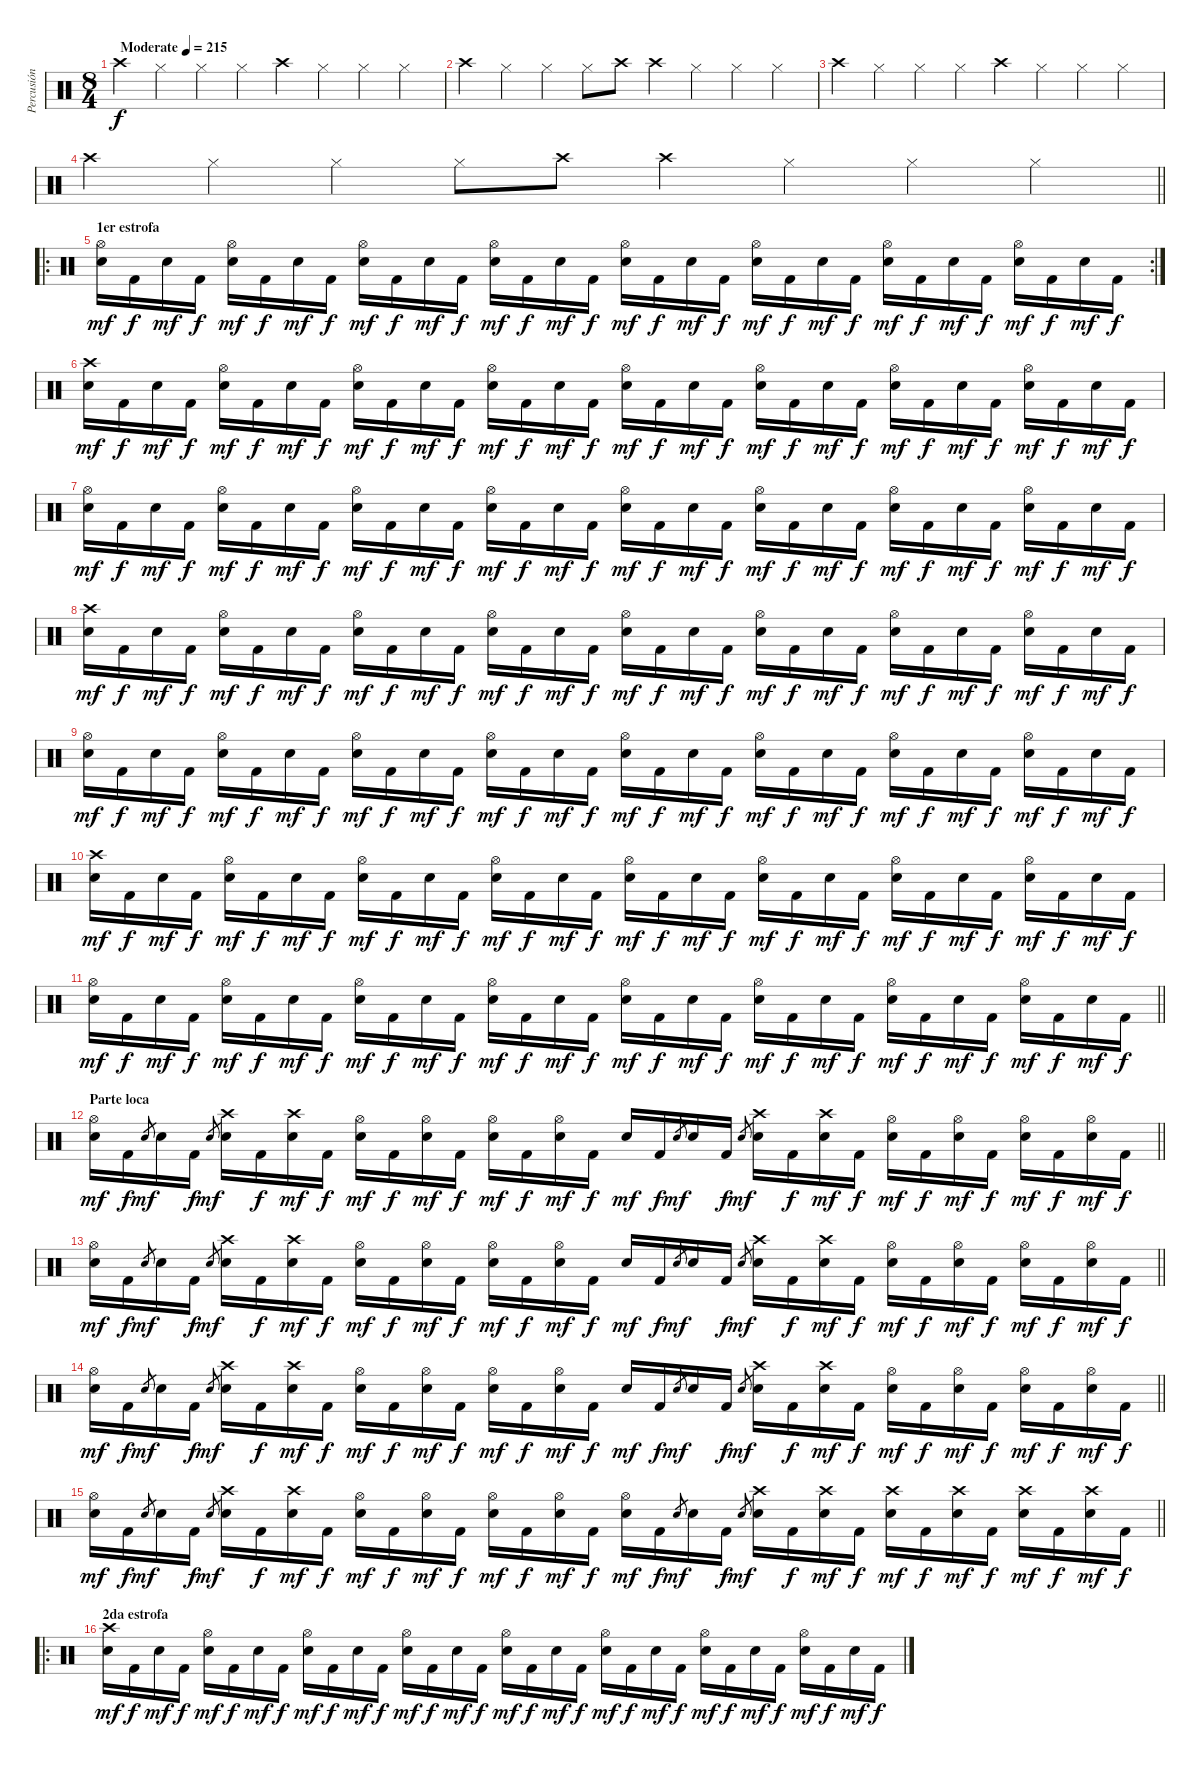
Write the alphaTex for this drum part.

\track ("Percusión" "Percusión") {instrument percussion}
\staff {score}
\articulation defaults
\ts (8 4)
\tempo (215 "Moderate")
\clef neutral
\ks c "Crash high (hit)".4{dy f} "Hi-Hat (closed)".4 "Hi-Hat (closed)".4 "Hi-Hat (closed)".4 "Crash high (hit)".4 "Hi-Hat (closed)".4 "Hi-Hat (closed)".4 "Hi-Hat (closed)".4
|
"Crash high (hit)".4 "Hi-Hat (closed)".4 "Hi-Hat (closed)".4 "Hi-Hat (closed)".8 "Crash high (hit)".8 "Crash high (hit)".4 "Hi-Hat (closed)".4 "Hi-Hat (closed)".4 "Hi-Hat (closed)".4 |
"Crash high (hit)".4 "Hi-Hat (closed)".4 "Hi-Hat (closed)".4 "Hi-Hat (closed)".4 "Crash high (hit)".4 "Hi-Hat (closed)".4 "Hi-Hat (closed)".4 "Hi-Hat (closed)".4 |
\barLineRight lightlight "Crash high (hit)".4 "Hi-Hat (closed)".4 "Hi-Hat (closed)".4 "Hi-Hat (closed)".8 "Crash high (hit)".8 "Crash high (hit)".4 "Hi-Hat (closed)".4 "Hi-Hat (closed)".4 "Hi-Hat (closed)".4
|
\ro
\rc 2
\section ("" "1er estrofa")
("Hi-Hat (open)" "Electric Snare (hit)").16{dy mf} "Kick (hit) 2".16{dy f} "Electric Snare (hit)".16{dy mf} "Kick (hit) 2".16{dy f} ("Hi-Hat (open)" "Electric Snare (hit)").16{dy mf} "Kick (hit) 2".16{dy f} "Electric Snare (hit)".16{dy mf} "Kick (hit) 2".16{dy f} ("Hi-Hat (open)" "Electric Snare (hit)").16{dy mf} "Kick (hit) 2".16{dy f} "Electric Snare (hit)".16{dy mf} "Kick (hit) 2".16{dy f} ("Hi-Hat (open)" "Electric Snare (hit)").16{dy mf} "Kick (hit) 2".16{dy f} "Electric Snare (hit)".16{dy mf} "Kick (hit) 2".16{dy f} ("Hi-Hat (open)" "Electric Snare (hit)").16{dy mf} "Kick (hit) 2".16{dy f} "Electric Snare (hit)".16{dy mf} "Kick (hit) 2".16{dy f} ("Hi-Hat (open)" "Electric Snare (hit)").16{dy mf} "Kick (hit) 2".16{dy f} "Electric Snare (hit)".16{dy mf} "Kick (hit) 2".16{dy f} ("Hi-Hat (open)" "Electric Snare (hit)").16{dy mf} "Kick (hit) 2".16{dy f} "Electric Snare (hit)".16{dy mf} "Kick (hit) 2".16{dy f} ("Hi-Hat (open)" "Electric Snare (hit)").16{dy mf} "Kick (hit) 2".16{dy f} "Electric Snare (hit)".16{dy mf} "Kick (hit) 2".16{dy f} |
("Crash high (hit)" "Electric Snare (hit)").16{dy mf} "Kick (hit) 2".16{dy f} "Electric Snare (hit)".16{dy mf} "Kick (hit) 2".16{dy f} ("Hi-Hat (open)" "Electric Snare (hit)").16{dy mf} "Kick (hit) 2".16{dy f} "Electric Snare (hit)".16{dy mf} "Kick (hit) 2".16{dy f} ("Hi-Hat (open)" "Electric Snare (hit)").16{dy mf} "Kick (hit) 2".16{dy f} "Electric Snare (hit)".16{dy mf} "Kick (hit) 2".16{dy f} ("Hi-Hat (open)" "Electric Snare (hit)").16{dy mf} "Kick (hit) 2".16{dy f} "Electric Snare (hit)".16{dy mf} "Kick (hit) 2".16{dy f} ("Hi-Hat (open)" "Electric Snare (hit)").16{dy mf} "Kick (hit) 2".16{dy f} "Electric Snare (hit)".16{dy mf} "Kick (hit) 2".16{dy f} ("Hi-Hat (open)" "Electric Snare (hit)").16{dy mf} "Kick (hit) 2".16{dy f} "Electric Snare (hit)".16{dy mf} "Kick (hit) 2".16{dy f} ("Hi-Hat (open)" "Electric Snare (hit)").16{dy mf} "Kick (hit) 2".16{dy f} "Electric Snare (hit)".16{dy mf} "Kick (hit) 2".16{dy f} ("Hi-Hat (open)" "Electric Snare (hit)").16{dy mf} "Kick (hit) 2".16{dy f} "Electric Snare (hit)".16{dy mf} "Kick (hit) 2".16{dy f} |
("Hi-Hat (open)" "Electric Snare (hit)").16{dy mf} "Kick (hit) 2".16{dy f} "Electric Snare (hit)".16{dy mf} "Kick (hit) 2".16{dy f} ("Hi-Hat (open)" "Electric Snare (hit)").16{dy mf} "Kick (hit) 2".16{dy f} "Electric Snare (hit)".16{dy mf} "Kick (hit) 2".16{dy f} ("Hi-Hat (open)" "Electric Snare (hit)").16{dy mf} "Kick (hit) 2".16{dy f} "Electric Snare (hit)".16{dy mf} "Kick (hit) 2".16{dy f} ("Hi-Hat (open)" "Electric Snare (hit)").16{dy mf} "Kick (hit) 2".16{dy f} "Electric Snare (hit)".16{dy mf} "Kick (hit) 2".16{dy f} ("Hi-Hat (open)" "Electric Snare (hit)").16{dy mf} "Kick (hit) 2".16{dy f} "Electric Snare (hit)".16{dy mf} "Kick (hit) 2".16{dy f} ("Hi-Hat (open)" "Electric Snare (hit)").16{dy mf} "Kick (hit) 2".16{dy f} "Electric Snare (hit)".16{dy mf} "Kick (hit) 2".16{dy f} ("Hi-Hat (open)" "Electric Snare (hit)").16{dy mf} "Kick (hit) 2".16{dy f} "Electric Snare (hit)".16{dy mf} "Kick (hit) 2".16{dy f} ("Hi-Hat (open)" "Electric Snare (hit)").16{dy mf} "Kick (hit) 2".16{dy f} "Electric Snare (hit)".16{dy mf} "Kick (hit) 2".16{dy f} |
("Crash high (hit)" "Electric Snare (hit)").16{dy mf} "Kick (hit) 2".16{dy f} "Electric Snare (hit)".16{dy mf} "Kick (hit) 2".16{dy f} ("Hi-Hat (open)" "Electric Snare (hit)").16{dy mf} "Kick (hit) 2".16{dy f} "Electric Snare (hit)".16{dy mf} "Kick (hit) 2".16{dy f} ("Hi-Hat (open)" "Electric Snare (hit)").16{dy mf} "Kick (hit) 2".16{dy f} "Electric Snare (hit)".16{dy mf} "Kick (hit) 2".16{dy f} ("Hi-Hat (open)" "Electric Snare (hit)").16{dy mf} "Kick (hit) 2".16{dy f} "Electric Snare (hit)".16{dy mf} "Kick (hit) 2".16{dy f} ("Hi-Hat (open)" "Electric Snare (hit)").16{dy mf} "Kick (hit) 2".16{dy f} "Electric Snare (hit)".16{dy mf} "Kick (hit) 2".16{dy f} ("Hi-Hat (open)" "Electric Snare (hit)").16{dy mf} "Kick (hit) 2".16{dy f} "Electric Snare (hit)".16{dy mf} "Kick (hit) 2".16{dy f} ("Hi-Hat (open)" "Electric Snare (hit)").16{dy mf} "Kick (hit) 2".16{dy f} "Electric Snare (hit)".16{dy mf} "Kick (hit) 2".16{dy f} ("Hi-Hat (open)" "Electric Snare (hit)").16{dy mf} "Kick (hit) 2".16{dy f} "Electric Snare (hit)".16{dy mf} "Kick (hit) 2".16{dy f} |
("Hi-Hat (open)" "Electric Snare (hit)").16{dy mf} "Kick (hit) 2".16{dy f} "Electric Snare (hit)".16{dy mf} "Kick (hit) 2".16{dy f} ("Hi-Hat (open)" "Electric Snare (hit)").16{dy mf} "Kick (hit) 2".16{dy f} "Electric Snare (hit)".16{dy mf} "Kick (hit) 2".16{dy f} ("Hi-Hat (open)" "Electric Snare (hit)").16{dy mf} "Kick (hit) 2".16{dy f} "Electric Snare (hit)".16{dy mf} "Kick (hit) 2".16{dy f} ("Hi-Hat (open)" "Electric Snare (hit)").16{dy mf} "Kick (hit) 2".16{dy f} "Electric Snare (hit)".16{dy mf} "Kick (hit) 2".16{dy f} ("Hi-Hat (open)" "Electric Snare (hit)").16{dy mf} "Kick (hit) 2".16{dy f} "Electric Snare (hit)".16{dy mf} "Kick (hit) 2".16{dy f} ("Hi-Hat (open)" "Electric Snare (hit)").16{dy mf} "Kick (hit) 2".16{dy f} "Electric Snare (hit)".16{dy mf} "Kick (hit) 2".16{dy f} ("Hi-Hat (open)" "Electric Snare (hit)").16{dy mf} "Kick (hit) 2".16{dy f} "Electric Snare (hit)".16{dy mf} "Kick (hit) 2".16{dy f} ("Hi-Hat (open)" "Electric Snare (hit)").16{dy mf} "Kick (hit) 2".16{dy f} "Electric Snare (hit)".16{dy mf} "Kick (hit) 2".16{dy f} |
("Crash high (hit)" "Electric Snare (hit)").16{dy mf} "Kick (hit) 2".16{dy f} "Electric Snare (hit)".16{dy mf} "Kick (hit) 2".16{dy f} ("Hi-Hat (open)" "Electric Snare (hit)").16{dy mf} "Kick (hit) 2".16{dy f} "Electric Snare (hit)".16{dy mf} "Kick (hit) 2".16{dy f} ("Hi-Hat (open)" "Electric Snare (hit)").16{dy mf} "Kick (hit) 2".16{dy f} "Electric Snare (hit)".16{dy mf} "Kick (hit) 2".16{dy f} ("Hi-Hat (open)" "Electric Snare (hit)").16{dy mf} "Kick (hit) 2".16{dy f} "Electric Snare (hit)".16{dy mf} "Kick (hit) 2".16{dy f} ("Hi-Hat (open)" "Electric Snare (hit)").16{dy mf} "Kick (hit) 2".16{dy f} "Electric Snare (hit)".16{dy mf} "Kick (hit) 2".16{dy f} ("Hi-Hat (open)" "Electric Snare (hit)").16{dy mf} "Kick (hit) 2".16{dy f} "Electric Snare (hit)".16{dy mf} "Kick (hit) 2".16{dy f} ("Hi-Hat (open)" "Electric Snare (hit)").16{dy mf} "Kick (hit) 2".16{dy f} "Electric Snare (hit)".16{dy mf} "Kick (hit) 2".16{dy f} ("Hi-Hat (open)" "Electric Snare (hit)").16{dy mf} "Kick (hit) 2".16{dy f} "Electric Snare (hit)".16{dy mf} "Kick (hit) 2".16{dy f} |
\barLineRight lightlight
("Hi-Hat (open)" "Electric Snare (hit)").16{dy mf} "Kick (hit) 2".16{dy f} "Electric Snare (hit)".16{dy mf} "Kick (hit) 2".16{dy f} ("Hi-Hat (open)" "Electric Snare (hit)").16{dy mf} "Kick (hit) 2".16{dy f} "Electric Snare (hit)".16{dy mf} "Kick (hit) 2".16{dy f} ("Hi-Hat (open)" "Electric Snare (hit)").16{dy mf} "Kick (hit) 2".16{dy f} "Electric Snare (hit)".16{dy mf} "Kick (hit) 2".16{dy f} ("Hi-Hat (open)" "Electric Snare (hit)").16{dy mf} "Kick (hit) 2".16{dy f} "Electric Snare (hit)".16{dy mf} "Kick (hit) 2".16{dy f} ("Hi-Hat (open)" "Electric Snare (hit)").16{dy mf} "Kick (hit) 2".16{dy f} "Electric Snare (hit)".16{dy mf} "Kick (hit) 2".16{dy f} ("Hi-Hat (open)" "Electric Snare (hit)").16{dy mf} "Kick (hit) 2".16{dy f} "Electric Snare (hit)".16{dy mf} "Kick (hit) 2".16{dy f} ("Hi-Hat (open)" "Electric Snare (hit)").16{dy mf} "Kick (hit) 2".16{dy f} "Electric Snare (hit)".16{dy mf} "Kick (hit) 2".16{dy f} ("Hi-Hat (open)" "Electric Snare (hit)").16{dy mf} "Kick (hit) 2".16{dy f} "Electric Snare (hit)".16{dy mf} "Kick (hit) 2".16{dy f} |
\section ("" "Parte loca")
\barLineRight lightlight
("Hi-Hat (open)" "Electric Snare (hit)").16{dy mf} "Kick (hit) 2".16{dy f} "Electric Snare (hit)".8{gr dy mf} "Electric Snare (hit)".16 "Kick (hit) 2".16{dy f} "Electric Snare (hit)".8{gr dy mf} ("Crash high (hit)" "Electric Snare (hit)").16 "Kick (hit) 2".16{dy f} ("Crash high (hit)" "Electric Snare (hit)").16{dy mf} "Kick (hit) 2".16{dy f} ("Hi-Hat (open)" "Electric Snare (hit)").16{dy mf} "Kick (hit) 2".16{dy f} ("Hi-Hat (open)" "Electric Snare (hit)").16{dy mf} "Kick (hit) 2".16{dy f} ("Hi-Hat (open)" "Electric Snare (hit)").16{dy mf} "Kick (hit) 2".16{dy f} ("Hi-Hat (open)" "Electric Snare (hit)").16{dy mf} "Kick (hit) 2".16{dy f} "Electric Snare (hit)".16{dy mf} "Kick (hit) 2".16{dy f} "Electric Snare (hit)".8{gr dy mf} "Electric Snare (hit)".16 "Kick (hit) 2".16{dy f} "Electric Snare (hit)".8{gr dy mf} ("Crash high (hit)" "Electric Snare (hit)").16 "Kick (hit) 2".16{dy f} ("Crash high (hit)" "Electric Snare (hit)").16{dy mf} "Kick (hit) 2".16{dy f} ("Hi-Hat (open)" "Electric Snare (hit)").16{dy mf} "Kick (hit) 2".16{dy f} ("Hi-Hat (open)" "Electric Snare (hit)").16{dy mf} "Kick (hit) 2".16{dy f} ("Hi-Hat (open)" "Electric Snare (hit)").16{dy mf} "Kick (hit) 2".16{dy f} ("Hi-Hat (open)" "Electric Snare (hit)").16{dy mf} "Kick (hit) 2".16{dy f} |
\barLineRight lightlight
("Hi-Hat (open)" "Electric Snare (hit)").16{dy mf} "Kick (hit) 2".16{dy f} "Electric Snare (hit)".8{gr dy mf} "Electric Snare (hit)".16 "Kick (hit) 2".16{dy f} "Electric Snare (hit)".8{gr dy mf} ("Crash high (hit)" "Electric Snare (hit)").16 "Kick (hit) 2".16{dy f} ("Crash high (hit)" "Electric Snare (hit)").16{dy mf} "Kick (hit) 2".16{dy f} ("Hi-Hat (open)" "Electric Snare (hit)").16{dy mf} "Kick (hit) 2".16{dy f} ("Hi-Hat (open)" "Electric Snare (hit)").16{dy mf} "Kick (hit) 2".16{dy f} ("Hi-Hat (open)" "Electric Snare (hit)").16{dy mf} "Kick (hit) 2".16{dy f} ("Hi-Hat (open)" "Electric Snare (hit)").16{dy mf} "Kick (hit) 2".16{dy f} "Electric Snare (hit)".16{dy mf} "Kick (hit) 2".16{dy f} "Electric Snare (hit)".8{gr dy mf} "Electric Snare (hit)".16 "Kick (hit) 2".16{dy f} "Electric Snare (hit)".8{gr dy mf} ("Crash high (hit)" "Electric Snare (hit)").16 "Kick (hit) 2".16{dy f} ("Crash high (hit)" "Electric Snare (hit)").16{dy mf} "Kick (hit) 2".16{dy f} ("Hi-Hat (open)" "Electric Snare (hit)").16{dy mf} "Kick (hit) 2".16{dy f} ("Hi-Hat (open)" "Electric Snare (hit)").16{dy mf} "Kick (hit) 2".16{dy f} ("Hi-Hat (open)" "Electric Snare (hit)").16{dy mf} "Kick (hit) 2".16{dy f} ("Hi-Hat (open)" "Electric Snare (hit)").16{dy mf} "Kick (hit) 2".16{dy f} |
\barLineRight lightlight
("Hi-Hat (open)" "Electric Snare (hit)").16{dy mf} "Kick (hit) 2".16{dy f} "Electric Snare (hit)".8{gr dy mf} "Electric Snare (hit)".16 "Kick (hit) 2".16{dy f} "Electric Snare (hit)".8{gr dy mf} ("Crash high (hit)" "Electric Snare (hit)").16 "Kick (hit) 2".16{dy f} ("Crash high (hit)" "Electric Snare (hit)").16{dy mf} "Kick (hit) 2".16{dy f} ("Hi-Hat (open)" "Electric Snare (hit)").16{dy mf} "Kick (hit) 2".16{dy f} ("Hi-Hat (open)" "Electric Snare (hit)").16{dy mf} "Kick (hit) 2".16{dy f} ("Hi-Hat (open)" "Electric Snare (hit)").16{dy mf} "Kick (hit) 2".16{dy f} ("Hi-Hat (open)" "Electric Snare (hit)").16{dy mf} "Kick (hit) 2".16{dy f} "Electric Snare (hit)".16{dy mf} "Kick (hit) 2".16{dy f} "Electric Snare (hit)".8{gr dy mf} "Electric Snare (hit)".16 "Kick (hit) 2".16{dy f} "Electric Snare (hit)".8{gr dy mf} ("Crash high (hit)" "Electric Snare (hit)").16 "Kick (hit) 2".16{dy f} ("Crash high (hit)" "Electric Snare (hit)").16{dy mf} "Kick (hit) 2".16{dy f} ("Hi-Hat (open)" "Electric Snare (hit)").16{dy mf} "Kick (hit) 2".16{dy f} ("Hi-Hat (open)" "Electric Snare (hit)").16{dy mf} "Kick (hit) 2".16{dy f} ("Hi-Hat (open)" "Electric Snare (hit)").16{dy mf} "Kick (hit) 2".16{dy f} ("Hi-Hat (open)" "Electric Snare (hit)").16{dy mf} "Kick (hit) 2".16{dy f} |
\barLineRight lightlight
("Hi-Hat (open)" "Electric Snare (hit)").16{dy mf} "Kick (hit) 2".16{dy f} "Electric Snare (hit)".8{gr dy mf} "Electric Snare (hit)".16 "Kick (hit) 2".16{dy f} "Electric Snare (hit)".8{gr dy mf} ("Crash high (hit)" "Electric Snare (hit)").16 "Kick (hit) 2".16{dy f} ("Crash high (hit)" "Electric Snare (hit)").16{dy mf} "Kick (hit) 2".16{dy f} ("Hi-Hat (open)" "Electric Snare (hit)").16{dy mf} "Kick (hit) 2".16{dy f} ("Hi-Hat (open)" "Electric Snare (hit)").16{dy mf} "Kick (hit) 2".16{dy f} ("Hi-Hat (open)" "Electric Snare (hit)").16{dy mf} "Kick (hit) 2".16{dy f} ("Hi-Hat (open)" "Electric Snare (hit)").16{dy mf} "Kick (hit) 2".16{dy f} ("Hi-Hat (open)" "Electric Snare (hit)").16{dy mf} "Kick (hit) 2".16{dy f} "Electric Snare (hit)".8{gr dy mf} "Electric Snare (hit)".16 "Kick (hit) 2".16{dy f} "Electric Snare (hit)".8{gr dy mf} ("Crash high (hit)" "Electric Snare (hit)").16 "Kick (hit) 2".16{dy f} ("Crash high (hit)" "Electric Snare (hit)").16{dy mf} "Kick (hit) 2".16{dy f} ("Crash high (hit)" "Electric Snare (hit)").16{dy mf} "Kick (hit) 2".16{dy f} ("Crash high (hit)" "Electric Snare (hit)").16{dy mf} "Kick (hit) 2".16{dy f} ("Crash high (hit)" "Electric Snare (hit)").16{dy mf} "Kick (hit) 2".16{dy f} ("Crash high (hit)" "Electric Snare (hit)").16{dy mf} "Kick (hit) 2".16{dy f} |
\ro
\section ("" "2da estrofa")
("Crash high (hit)" "Electric Snare (hit)").16{dy mf} "Kick (hit) 2".16{dy f} "Electric Snare (hit)".16{dy mf} "Kick (hit) 2".16{dy f} ("Hi-Hat (open)" "Electric Snare (hit)").16{dy mf} "Kick (hit) 2".16{dy f} "Electric Snare (hit)".16{dy mf} "Kick (hit) 2".16{dy f} ("Hi-Hat (open)" "Electric Snare (hit)").16{dy mf} "Kick (hit) 2".16{dy f} "Electric Snare (hit)".16{dy mf} "Kick (hit) 2".16{dy f} ("Hi-Hat (open)" "Electric Snare (hit)").16{dy mf} "Kick (hit) 2".16{dy f} "Electric Snare (hit)".16{dy mf} "Kick (hit) 2".16{dy f} ("Hi-Hat (open)" "Electric Snare (hit)").16{dy mf} "Kick (hit) 2".16{dy f} "Electric Snare (hit)".16{dy mf} "Kick (hit) 2".16{dy f} ("Hi-Hat (open)" "Electric Snare (hit)").16{dy mf} "Kick (hit) 2".16{dy f} "Electric Snare (hit)".16{dy mf} "Kick (hit) 2".16{dy f} ("Hi-Hat (open)" "Electric Snare (hit)").16{dy mf} "Kick (hit) 2".16{dy f} "Electric Snare (hit)".16{dy mf} "Kick (hit) 2".16{dy f} ("Hi-Hat (open)" "Electric Snare (hit)").16{dy mf} "Kick (hit) 2".16{dy f} "Electric Snare (hit)".16{dy mf} "Kick (hit) 2".16{dy f}
